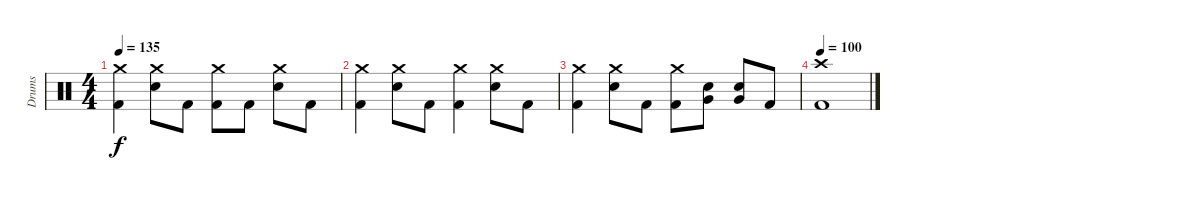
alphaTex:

\track ("Drums" "Drums") {instrument percussion}
\staff {score}
\articulation defaults
\ts (4 4)
\tempo 135
\clef neutral
\ks c
("Crash medium (hit)" "Kick (hit) 2").4{dy f} ("Crash medium (hit)" "Electric Snare (hit)").8 "Kick (hit) 2".8 ("Crash medium (hit)" "Kick (hit) 2").8 "Kick (hit) 2".8 ("Crash medium (hit)" "Electric Snare (hit)").8 "Kick (hit) 2".8 |
("Crash medium (hit)" "Kick (hit) 2").4 ("Crash medium (hit)" "Electric Snare (hit)").8 "Kick (hit) 2".8 ("Crash medium (hit)" "Kick (hit) 2").4 ("Crash medium (hit)" "Electric Snare (hit)").8 "Kick (hit) 2".8 |
("Crash medium (hit)" "Kick (hit) 2").4 ("Crash medium (hit)" "Electric Snare (hit)").8 "Kick (hit) 2".8 ("Crash medium (hit)" "Kick (hit) 2").8 ("Very Low Tom (hit)" "Electric Snare (hit)").8 ("Very Low Tom (hit)" "Electric Snare (hit)").8 "Kick (hit) 2".8 |
\tempo 100
("Crash high (hit)" "Kick (hit) 2").1
